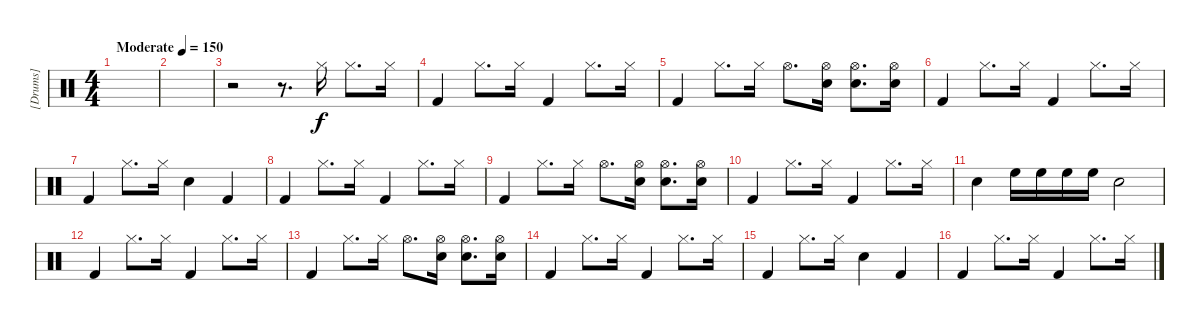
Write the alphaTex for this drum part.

\track ("[Drums]" "[Drums]") {instrument percussion}
\staff {score}
\articulation defaults
\ts (4 4)
\tempo (150 "Moderate")
\clef neutral
\ks c
|
|
r.2 r.8{d} "Hi-Hat (closed)".16 "Hi-Hat (closed)".8{d} "Hi-Hat (closed)".16 |
"Kick (hit) 2".4 "Hi-Hat (closed)".8{d} "Hi-Hat (closed)".16 "Kick (hit) 2".4 "Hi-Hat (closed)".8{d} "Hi-Hat (closed)".16 |
"Kick (hit) 2".4 "Hi-Hat (closed)".8{d} "Hi-Hat (closed)".16 "Hi-Hat (open)".8{d} ("Hi-Hat (open)" "Electric Snare (hit)").16 ("Hi-Hat (open)" "Electric Snare (hit)").8{d} ("Hi-Hat (open)" "Electric Snare (hit)").16 |
"Kick (hit) 2".4 "Hi-Hat (closed)".8{d} "Hi-Hat (closed)".16 "Kick (hit) 2".4 "Hi-Hat (closed)".8{d} "Hi-Hat (closed)".16 |
"Kick (hit) 2".4 "Hi-Hat (closed)".8{d} "Hi-Hat (closed)".16 "Electric Snare (hit)".4 "Kick (hit) 2".4 |
"Kick (hit) 2".4 "Hi-Hat (closed)".8{d} "Hi-Hat (closed)".16 "Kick (hit) 2".4 "Hi-Hat (closed)".8{d} "Hi-Hat (closed)".16 |
"Kick (hit) 2".4 "Hi-Hat (closed)".8{d} "Hi-Hat (closed)".16 "Hi-Hat (open)".8{d} ("Hi-Hat (open)" "Electric Snare (hit)").16 ("Hi-Hat (open)" "Electric Snare (hit)").8{d} ("Hi-Hat (open)" "Electric Snare (hit)").16 |
"Kick (hit) 2".4 "Hi-Hat (closed)".8{d} "Hi-Hat (closed)".16 "Kick (hit) 2".4 "Hi-Hat (closed)".8{d} "Hi-Hat (closed)".16 |
"Electric Snare (hit)".4 "High Floor Tom (hit)".16 "High Floor Tom (hit)".16 "High Floor Tom (hit)".16 "High Floor Tom (hit)".16 "Electric Snare (hit)".2 |
"Kick (hit) 2".4 "Hi-Hat (closed)".8{d} "Hi-Hat (closed)".16 "Kick (hit) 2".4 "Hi-Hat (closed)".8{d} "Hi-Hat (closed)".16 |
"Kick (hit) 2".4 "Hi-Hat (closed)".8{d} "Hi-Hat (closed)".16 "Hi-Hat (open)".8{d} ("Hi-Hat (open)" "Electric Snare (hit)").16 ("Hi-Hat (open)" "Electric Snare (hit)").8{d} ("Hi-Hat (open)" "Electric Snare (hit)").16 |
"Kick (hit) 2".4 "Hi-Hat (closed)".8{d} "Hi-Hat (closed)".16 "Kick (hit) 2".4 "Hi-Hat (closed)".8{d} "Hi-Hat (closed)".16 |
"Kick (hit) 2".4 "Hi-Hat (closed)".8{d} "Hi-Hat (closed)".16 "Electric Snare (hit)".4 "Kick (hit) 2".4 |
"Kick (hit) 2".4 "Hi-Hat (closed)".8{d} "Hi-Hat (closed)".16 "Kick (hit) 2".4 "Hi-Hat (closed)".8{d} "Hi-Hat (closed)".16
